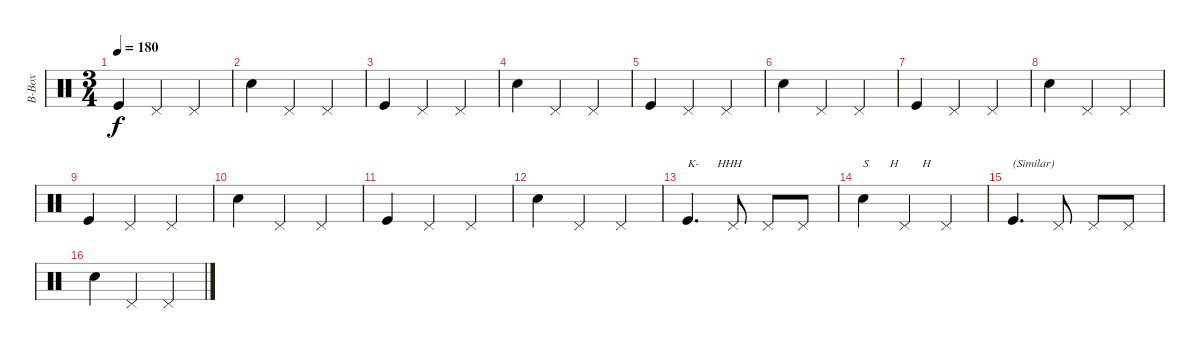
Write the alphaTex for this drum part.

\track ("B-Box" "B-Box") {instrument percussion}
\staff {score}
\articulation defaults
\ts (3 4)
\tempo 180
\clef neutral
\ks c "Kick (hit)".4{dy f} "Pedal Hi-Hat (hit)".4 "Pedal Hi-Hat (hit)".4
|
"Snare (hit) 2".4 "Pedal Hi-Hat (hit)".4 "Pedal Hi-Hat (hit)".4 |
"Kick (hit)".4 "Pedal Hi-Hat (hit)".4 "Pedal Hi-Hat (hit)".4 |
"Snare (hit) 2".4 "Pedal Hi-Hat (hit)".4 "Pedal Hi-Hat (hit)".4 |
"Kick (hit)".4 "Pedal Hi-Hat (hit)".4 "Pedal Hi-Hat (hit)".4 |
"Snare (hit) 2".4 "Pedal Hi-Hat (hit)".4 "Pedal Hi-Hat (hit)".4 |
"Kick (hit)".4 "Pedal Hi-Hat (hit)".4 "Pedal Hi-Hat (hit)".4 |
"Snare (hit) 2".4 "Pedal Hi-Hat (hit)".4 "Pedal Hi-Hat (hit)".4 |
"Kick (hit)".4 "Pedal Hi-Hat (hit)".4 "Pedal Hi-Hat (hit)".4 |
"Snare (hit) 2".4 "Pedal Hi-Hat (hit)".4 "Pedal Hi-Hat (hit)".4 |
"Kick (hit)".4 "Pedal Hi-Hat (hit)".4 "Pedal Hi-Hat (hit)".4 |
"Snare (hit) 2".4 "Pedal Hi-Hat (hit)".4 "Pedal Hi-Hat (hit)".4 |
"Kick (hit)".4{d txt "K-      HHH"} "Pedal Hi-Hat (hit)".8 "Pedal Hi-Hat (hit)".8 "Pedal Hi-Hat (hit)".8 |
"Snare (hit) 2".4{txt "S       H        H"} "Pedal Hi-Hat (hit)".4 "Pedal Hi-Hat (hit)".4 |
"Kick (hit)".4{d txt "(Similar)"} "Pedal Hi-Hat (hit)".8 "Pedal Hi-Hat (hit)".8 "Pedal Hi-Hat (hit)".8 |
"Snare (hit) 2".4 "Pedal Hi-Hat (hit)".4 "Pedal Hi-Hat (hit)".4
